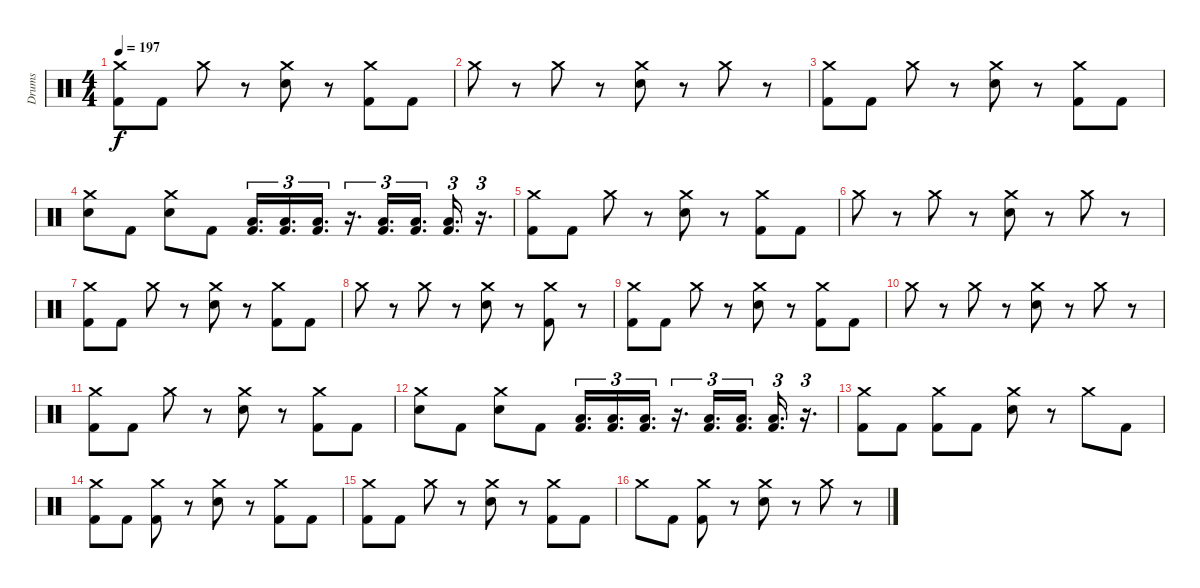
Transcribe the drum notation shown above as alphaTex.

\track ("Drums" "Drums") {instrument percussion}
\staff {score}
\articulation defaults
\ts (4 4)
\tempo 197
\clef neutral
\ks c
("Crash medium (hit)" "Kick (hit) 2").8{dy f} "Kick (hit) 2".8 "Crash medium (hit)".8 r.8 ("Crash medium (hit)" "Electric Snare (hit)").8 r.8 ("Crash medium (hit)" "Kick (hit) 2").8 "Kick (hit) 2".8 |
"Crash medium (hit)".8 r.8 "Crash medium (hit)".8 r.8 ("Crash medium (hit)" "Electric Snare (hit)").8 r.8 "Crash medium (hit)".8 r.8 |
("Crash medium (hit)" "Kick (hit) 2").8 "Kick (hit) 2".8 "Crash medium (hit)".8 r.8 ("Crash medium (hit)" "Electric Snare (hit)").8 r.8 ("Crash medium (hit)" "Kick (hit) 2").8 "Kick (hit) 2".8 |
("Crash medium (hit)" "Electric Snare (hit)").8 "Kick (hit) 2".8 ("Crash medium (hit)" "Electric Snare (hit)").8 "Kick (hit) 2".8 ("Low Floor Tom (hit)" "Kick (hit) 2").16{d tu (3 2)} ("Low Floor Tom (hit)" "Kick (hit) 2").16{d tu (3 2)} ("Low Floor Tom (hit)" "Kick (hit) 2").16{d tu (3 2)} r.16{d tu (3 2)} ("Low Floor Tom (hit)" "Kick (hit) 2").16{d tu (3 2)} ("Low Floor Tom (hit)" "Kick (hit) 2").16{d tu (3 2)} ("Low Floor Tom (hit)" "Kick (hit) 2").16{d tu (3 2)} r.16{d tu (3 2)} |
("Crash medium (hit)" "Kick (hit) 2").8 "Kick (hit) 2".8 "Crash medium (hit)".8 r.8 ("Crash medium (hit)" "Electric Snare (hit)").8 r.8 ("Crash medium (hit)" "Kick (hit) 2").8 "Kick (hit) 2".8 |
"Crash medium (hit)".8 r.8 "Crash medium (hit)".8 r.8 ("Crash medium (hit)" "Electric Snare (hit)").8 r.8 "Crash medium (hit)".8 r.8 |
("Crash medium (hit)" "Kick (hit) 2").8 "Kick (hit) 2".8 "Crash medium (hit)".8 r.8 ("Crash medium (hit)" "Electric Snare (hit)").8 r.8 ("Crash medium (hit)" "Kick (hit) 2").8 "Kick (hit) 2".8 |
"Crash medium (hit)".8 r.8 "Crash medium (hit)".8 r.8 ("Crash medium (hit)" "Electric Snare (hit)").8 r.8 ("Crash medium (hit)" "Kick (hit) 2").8 r.8 |
("Crash medium (hit)" "Kick (hit) 2").8 "Kick (hit) 2".8 "Crash medium (hit)".8 r.8 ("Crash medium (hit)" "Electric Snare (hit)").8 r.8 ("Crash medium (hit)" "Kick (hit) 2").8 "Kick (hit) 2".8 |
"Crash medium (hit)".8 r.8 "Crash medium (hit)".8 r.8 ("Crash medium (hit)" "Electric Snare (hit)").8 r.8 "Crash medium (hit)".8 r.8 |
("Crash medium (hit)" "Kick (hit) 2").8 "Kick (hit) 2".8 "Crash medium (hit)".8 r.8 ("Crash medium (hit)" "Electric Snare (hit)").8 r.8 ("Crash medium (hit)" "Kick (hit) 2").8 "Kick (hit) 2".8 |
("Crash medium (hit)" "Electric Snare (hit)").8 "Kick (hit) 2".8 ("Crash medium (hit)" "Electric Snare (hit)").8 "Kick (hit) 2".8 ("Low Floor Tom (hit)" "Kick (hit) 2").16{d tu (3 2)} ("Low Floor Tom (hit)" "Kick (hit) 2").16{d tu (3 2)} ("Low Floor Tom (hit)" "Kick (hit) 2").16{d tu (3 2)} r.16{d tu (3 2)} ("Low Floor Tom (hit)" "Kick (hit) 2").16{d tu (3 2)} ("Low Floor Tom (hit)" "Kick (hit) 2").16{d tu (3 2)} ("Low Floor Tom (hit)" "Kick (hit) 2").16{d tu (3 2)} r.16{d tu (3 2)} |
("Crash medium (hit)" "Kick (hit) 2").8 "Kick (hit) 2".8 ("Crash medium (hit)" "Kick (hit) 2").8 "Kick (hit) 2".8 ("Crash medium (hit)" "Electric Snare (hit)").8 r.8 "Crash medium (hit)".8 "Kick (hit) 2".8 |
("Crash medium (hit)" "Kick (hit) 2").8 "Kick (hit) 2".8 ("Crash medium (hit)" "Kick (hit) 2").8 r.8 ("Crash medium (hit)" "Electric Snare (hit)").8 r.8 ("Crash medium (hit)" "Kick (hit) 2").8 "Kick (hit) 2".8 |
("Crash medium (hit)" "Kick (hit) 2").8 "Kick (hit) 2".8 "Crash medium (hit)".8 r.8 ("Crash medium (hit)" "Electric Snare (hit)").8 r.8 ("Crash medium (hit)" "Kick (hit) 2").8 "Kick (hit) 2".8 |
"Crash medium (hit)".8 "Kick (hit) 2".8 ("Crash medium (hit)" "Kick (hit) 2").8 r.8 ("Crash medium (hit)" "Electric Snare (hit)").8 r.8 "Crash medium (hit)".8 r.8
